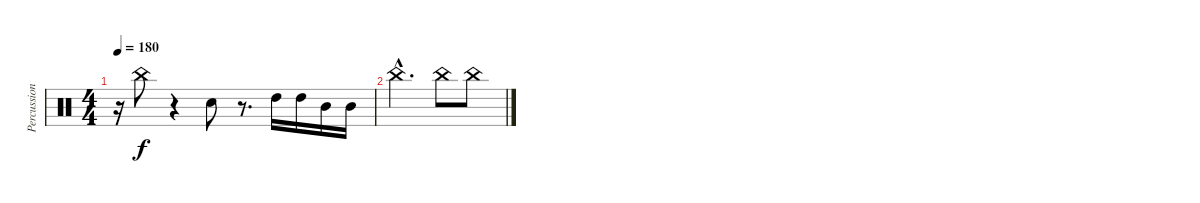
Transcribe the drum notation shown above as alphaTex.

\track ("Percussion" "Percussion") {instrument percussion}
\staff {score}
\articulation defaults
\ts (4 4)
\tempo 180
\clef neutral
\ks c
r.16{dy f} "China (hit)".8 r.4 "Snare (hit) 2".8 r.8{d} "High Tom (hit)".16 "High Tom (hit)".16 "Mid Tom (hit)".16 "Mid Tom (hit)".16 |
"China (hit)"{hac}.2{d} "China (hit)".8 "China (hit)".8
